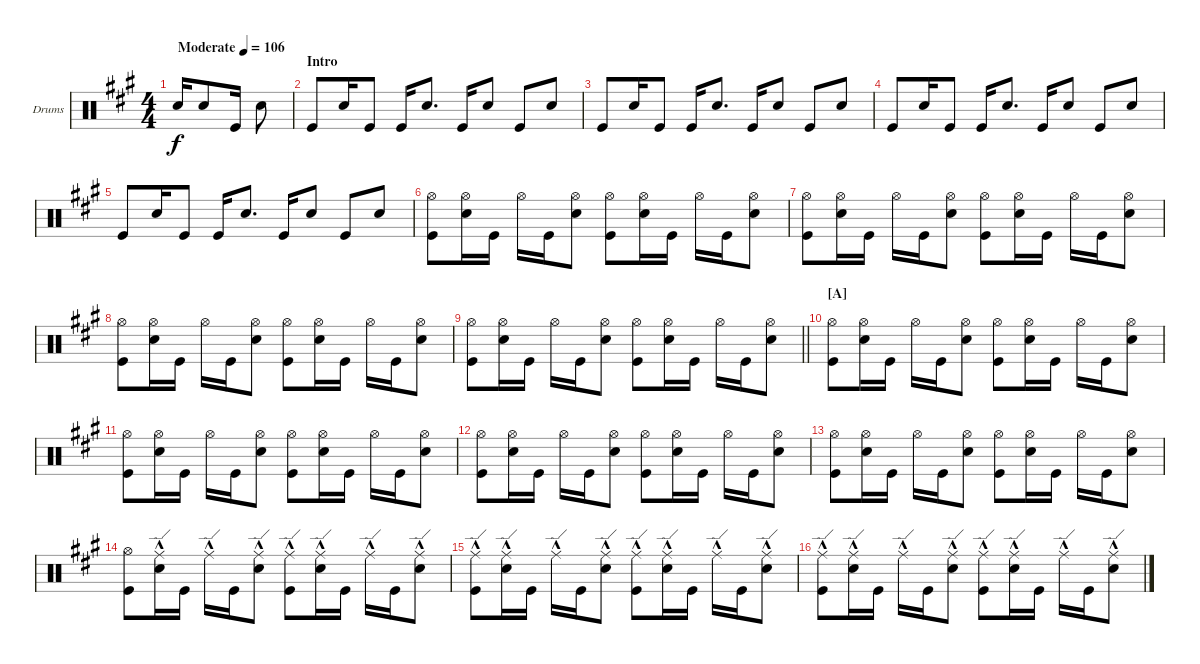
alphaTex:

\bracketExtendMode groupsimilarinstruments
\firstSystemTrackNameOrientation horizontal
\otherSystemsTrackNameOrientation horizontal
\track ("Fabrizio Moretti" "Drums") {instrument percussion}
\staff {score}
\articulation defaults
\ts (4 4)
\ac
\tempo (106 "Moderate")
\clef neutral
\ks a "Snare (hit) 2".16{dy f} "Snare (hit) 2".8 "Kick (hit)".16 "Snare (hit) 2".8
|
\section ("" "Intro")
"Kick (hit)".8 "Snare (hit) 2".16 "Kick (hit)".8 "Kick (hit)".16 "Snare (hit) 2".8{d} "Kick (hit)".16 "Snare (hit) 2".8 "Kick (hit)".8 "Snare (hit) 2".8 |
"Kick (hit)".8 "Snare (hit) 2".16 "Kick (hit)".8 "Kick (hit)".16 "Snare (hit) 2".8{d} "Kick (hit)".16 "Snare (hit) 2".8 "Kick (hit)".8 "Snare (hit) 2".8 |
"Kick (hit)".8 "Snare (hit) 2".16 "Kick (hit)".8 "Kick (hit)".16 "Snare (hit) 2".8{d} "Kick (hit)".16 "Snare (hit) 2".8 "Kick (hit)".8 "Snare (hit) 2".8 |
"Kick (hit)".8 "Snare (hit) 2".16 "Kick (hit)".8 "Kick (hit)".16 "Snare (hit) 2".8{d} "Kick (hit)".16 "Snare (hit) 2".8 "Kick (hit)".8 "Snare (hit) 2".8 |
("Hi-Hat (open)" "Kick (hit)").8 ("Hi-Hat (open)" "Snare (hit) 2").16 "Kick (hit)".16 "Hi-Hat (open)".16 "Kick (hit)".16 ("Hi-Hat (open)" "Snare (hit) 2").8 ("Hi-Hat (open)" "Kick (hit)").8 ("Hi-Hat (open)" "Snare (hit) 2").16 "Kick (hit)".16 "Hi-Hat (open)".16 "Kick (hit)".16 ("Hi-Hat (open)" "Snare (hit) 2").8 |
("Hi-Hat (open)" "Kick (hit)").8 ("Hi-Hat (open)" "Snare (hit) 2").16 "Kick (hit)".16 "Hi-Hat (open)".16 "Kick (hit)".16 ("Hi-Hat (open)" "Snare (hit) 2").8 ("Hi-Hat (open)" "Kick (hit)").8 ("Hi-Hat (open)" "Snare (hit) 2").16 "Kick (hit)".16 "Hi-Hat (open)".16 "Kick (hit)".16 ("Hi-Hat (open)" "Snare (hit) 2").8 |
("Hi-Hat (open)" "Kick (hit)").8 ("Hi-Hat (open)" "Snare (hit) 2").16 "Kick (hit)".16 "Hi-Hat (open)".16 "Kick (hit)".16 ("Hi-Hat (open)" "Snare (hit) 2").8 ("Hi-Hat (open)" "Kick (hit)").8 ("Hi-Hat (open)" "Snare (hit) 2").16 "Kick (hit)".16 "Hi-Hat (open)".16 "Kick (hit)".16 ("Hi-Hat (open)" "Snare (hit) 2").8 |
\barLineRight lightlight
("Hi-Hat (open)" "Kick (hit)").8 ("Hi-Hat (open)" "Snare (hit) 2").16 "Kick (hit)".16 "Hi-Hat (open)".16 "Kick (hit)".16 ("Hi-Hat (open)" "Snare (hit) 2").8 ("Hi-Hat (open)" "Kick (hit)").8 ("Hi-Hat (open)" "Snare (hit) 2").16 "Kick (hit)".16 "Hi-Hat (open)".16 "Kick (hit)".16 ("Hi-Hat (open)" "Snare (hit) 2").8 |
\section ("A" "")
("Hi-Hat (open)" "Kick (hit)").8 ("Hi-Hat (open)" "Snare (hit) 2").16 "Kick (hit)".16 "Hi-Hat (open)".16 "Kick (hit)".16 ("Hi-Hat (open)" "Snare (hit) 2").8 ("Hi-Hat (open)" "Kick (hit)").8 ("Hi-Hat (open)" "Snare (hit) 2").16 "Kick (hit)".16 "Hi-Hat (open)".16 "Kick (hit)".16 ("Hi-Hat (open)" "Snare (hit) 2").8 |
("Hi-Hat (open)" "Kick (hit)").8 ("Hi-Hat (open)" "Snare (hit) 2").16 "Kick (hit)".16 "Hi-Hat (open)".16 "Kick (hit)".16 ("Hi-Hat (open)" "Snare (hit) 2").8 ("Hi-Hat (open)" "Kick (hit)").8 ("Hi-Hat (open)" "Snare (hit) 2").16 "Kick (hit)".16 "Hi-Hat (open)".16 "Kick (hit)".16 ("Hi-Hat (open)" "Snare (hit) 2").8 |
("Hi-Hat (open)" "Kick (hit)").8 ("Hi-Hat (open)" "Snare (hit) 2").16 "Kick (hit)".16 "Hi-Hat (open)".16 "Kick (hit)".16 ("Hi-Hat (open)" "Snare (hit) 2").8 ("Hi-Hat (open)" "Kick (hit)").8 ("Hi-Hat (open)" "Snare (hit) 2").16 "Kick (hit)".16 "Hi-Hat (open)".16 "Kick (hit)".16 ("Hi-Hat (open)" "Snare (hit) 2").8 |
("Hi-Hat (open)" "Kick (hit)").8 ("Hi-Hat (open)" "Snare (hit) 2").16 "Kick (hit)".16 "Hi-Hat (open)".16 "Kick (hit)".16 ("Hi-Hat (open)" "Snare (hit) 2").8 ("Hi-Hat (open)" "Kick (hit)").8 ("Hi-Hat (open)" "Snare (hit) 2").16 "Kick (hit)".16 "Hi-Hat (open)".16 "Kick (hit)".16 ("Hi-Hat (open)" "Snare (hit) 2").8 |
("Hi-Hat (open)" "Kick (hit)").8 ("Ride (edge)"{hac} "Snare (hit) 2").16 "Kick (hit)".16 "Ride (edge)"{hac}.16 "Kick (hit)".16 ("Ride (edge)"{hac} "Snare (hit) 2").8 ("Ride (edge)"{hac} "Kick (hit)").8 ("Ride (edge)"{hac} "Snare (hit) 2").16 "Kick (hit)".16 "Ride (edge)"{hac}.16 "Kick (hit)".16 ("Ride (edge)"{hac} "Snare (hit) 2").8 |
("Ride (edge)"{hac} "Kick (hit)").8 ("Ride (edge)"{hac} "Snare (hit) 2").16 "Kick (hit)".16 "Ride (edge)"{hac}.16 "Kick (hit)".16 ("Ride (edge)"{hac} "Snare (hit) 2").8 ("Ride (edge)"{hac} "Kick (hit)").8 ("Ride (edge)"{hac} "Snare (hit) 2").16 "Kick (hit)".16 "Ride (edge)"{hac}.16 "Kick (hit)".16 ("Ride (edge)"{hac} "Snare (hit) 2").8 |
("Ride (edge)"{hac} "Kick (hit)").8 ("Ride (edge)"{hac} "Snare (hit) 2").16 "Kick (hit)".16 "Ride (edge)"{hac}.16 "Kick (hit)".16 ("Ride (edge)"{hac} "Snare (hit) 2").8 ("Ride (edge)"{hac} "Kick (hit)").8 ("Ride (edge)"{hac} "Snare (hit) 2").16 "Kick (hit)".16 "Ride (edge)"{hac}.16 "Kick (hit)".16 ("Ride (edge)"{hac} "Snare (hit) 2").8
